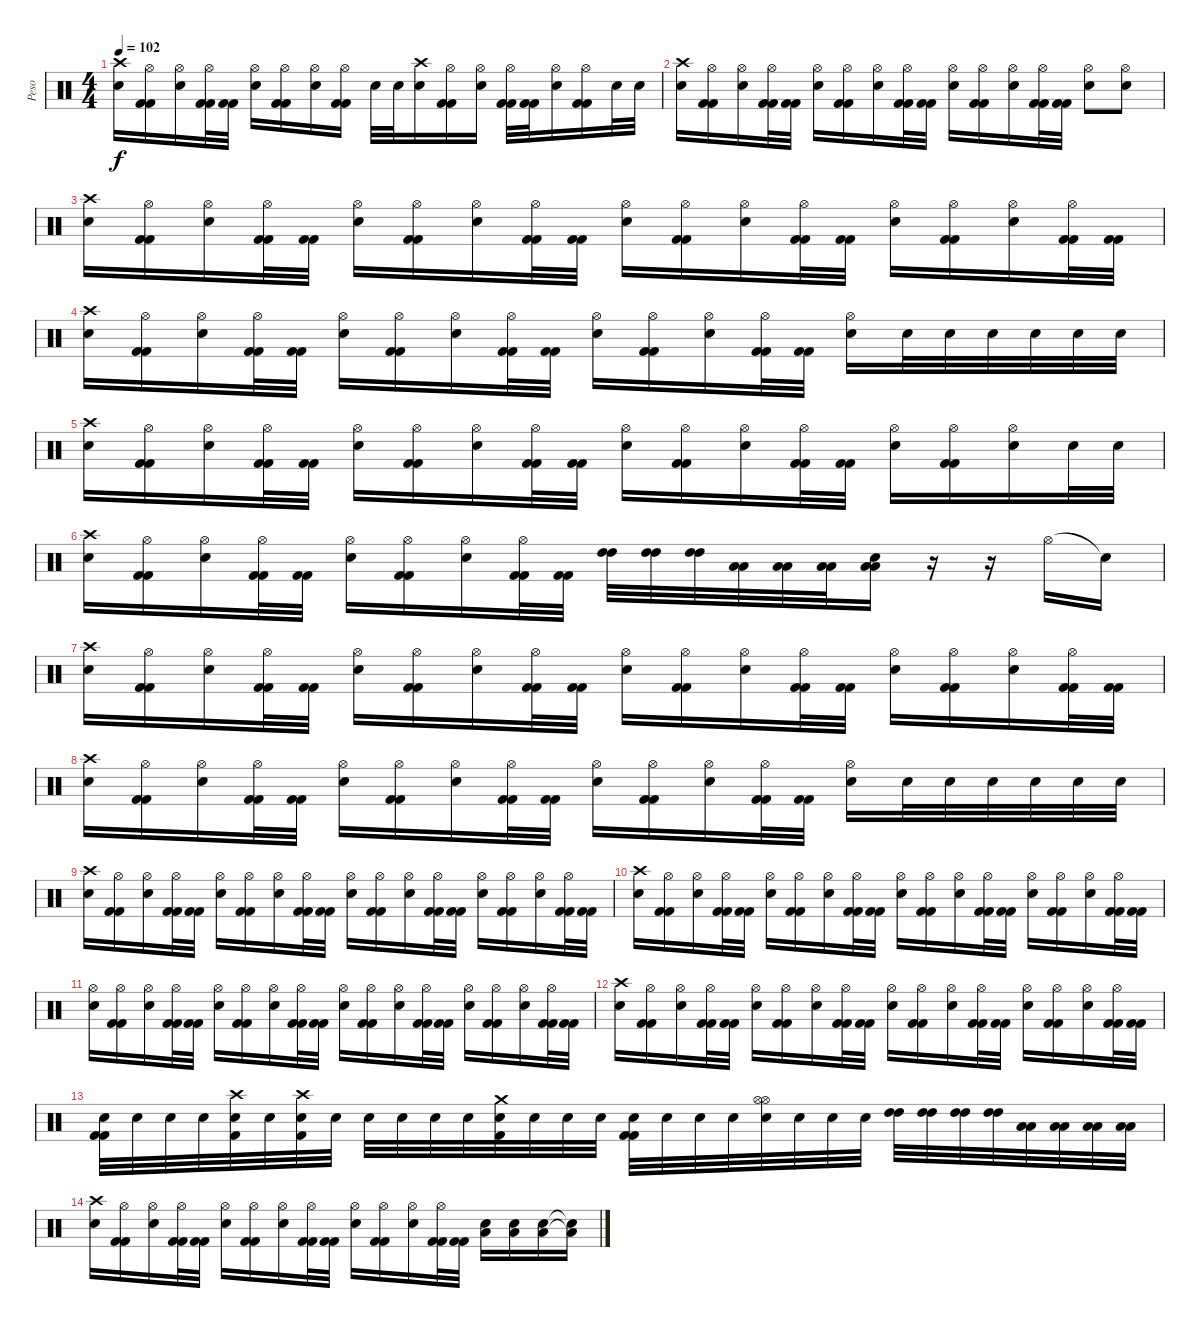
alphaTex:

\track ("Peso" "Peso") {instrument percussion}
\staff {score}
\articulation defaults
\ts (4 4)
\tempo 102
\clef neutral
\ks c
("Crash high (hit)" "Electric Snare (hit)").16{dy f} ("Hi-Hat (open)" "Kick (hit) 2" "Kick (hit) 2").16 ("Hi-Hat (open)" "Electric Snare (hit)").16 ("Hi-Hat (open)" "Kick (hit) 2" "Kick (hit) 2").32 ("Kick (hit) 2" "Kick (hit) 2").32 ("Hi-Hat (open)" "Electric Snare (hit)").16 ("Hi-Hat (open)" "Kick (hit) 2" "Kick (hit) 2").16 ("Hi-Hat (open)" "Electric Snare (hit)").16 ("Hi-Hat (open)" "Kick (hit) 2" "Kick (hit) 2").16 "Electric Snare (hit)".32 "Electric Snare (hit)".32 ("Crash high (hit)" "Electric Snare (hit)").16 ("Hi-Hat (open)" "Kick (hit) 2" "Kick (hit) 2").16 ("Hi-Hat (open)" "Electric Snare (hit)").16 ("Hi-Hat (open)" "Kick (hit) 2" "Kick (hit) 2").32 ("Kick (hit) 2" "Kick (hit) 2").32 ("Hi-Hat (open)" "Electric Snare (hit)").16 ("Hi-Hat (open)" "Kick (hit) 2" "Kick (hit) 2").16 "Electric Snare (hit)".32 "Electric Snare (hit)".32 |
("Crash high (hit)" "Electric Snare (hit)").16 ("Hi-Hat (open)" "Kick (hit) 2" "Kick (hit) 2").16 ("Hi-Hat (open)" "Electric Snare (hit)").16 ("Hi-Hat (open)" "Kick (hit) 2" "Kick (hit) 2").32 ("Kick (hit) 2" "Kick (hit) 2").32 ("Hi-Hat (open)" "Electric Snare (hit)").16 ("Hi-Hat (open)" "Kick (hit) 2" "Kick (hit) 2").16 ("Hi-Hat (open)" "Electric Snare (hit)").16 ("Hi-Hat (open)" "Kick (hit) 2" "Kick (hit) 2").32 ("Kick (hit) 2" "Kick (hit) 2").32 ("Hi-Hat (open)" "Electric Snare (hit)").16 ("Hi-Hat (open)" "Kick (hit) 2" "Kick (hit) 2").16 ("Hi-Hat (open)" "Electric Snare (hit)").16 ("Hi-Hat (open)" "Kick (hit) 2" "Kick (hit) 2").32 ("Kick (hit) 2" "Kick (hit) 2").32 ("Hi-Hat (open)" "Electric Snare (hit)").8 ("Hi-Hat (open)" "Electric Snare (hit)").8 |
("Crash high (hit)" "Electric Snare (hit)").16 ("Hi-Hat (open)" "Kick (hit) 2" "Kick (hit) 2").16 ("Hi-Hat (open)" "Electric Snare (hit)").16 ("Hi-Hat (open)" "Kick (hit) 2" "Kick (hit) 2").32 ("Kick (hit) 2" "Kick (hit) 2").32 ("Hi-Hat (open)" "Electric Snare (hit)").16 ("Hi-Hat (open)" "Kick (hit) 2" "Kick (hit) 2").16 ("Hi-Hat (open)" "Electric Snare (hit)").16 ("Hi-Hat (open)" "Kick (hit) 2" "Kick (hit) 2").32 ("Kick (hit) 2" "Kick (hit) 2").32 ("Hi-Hat (open)" "Electric Snare (hit)").16 ("Hi-Hat (open)" "Kick (hit) 2" "Kick (hit) 2").16 ("Hi-Hat (open)" "Electric Snare (hit)").16 ("Hi-Hat (open)" "Kick (hit) 2" "Kick (hit) 2").32 ("Kick (hit) 2" "Kick (hit) 2").32 ("Hi-Hat (open)" "Electric Snare (hit)").16 ("Hi-Hat (open)" "Kick (hit) 2" "Kick (hit) 2").16 ("Hi-Hat (open)" "Electric Snare (hit)").16 ("Hi-Hat (open)" "Kick (hit) 2" "Kick (hit) 2").32 ("Kick (hit) 2" "Kick (hit) 2").32 |
("Crash high (hit)" "Electric Snare (hit)").16 ("Hi-Hat (open)" "Kick (hit) 2" "Kick (hit) 2").16 ("Hi-Hat (open)" "Electric Snare (hit)").16 ("Hi-Hat (open)" "Kick (hit) 2" "Kick (hit) 2").32 ("Kick (hit) 2" "Kick (hit) 2").32 ("Hi-Hat (open)" "Electric Snare (hit)").16 ("Hi-Hat (open)" "Kick (hit) 2" "Kick (hit) 2").16 ("Hi-Hat (open)" "Electric Snare (hit)").16 ("Hi-Hat (open)" "Kick (hit) 2" "Kick (hit) 2").32 ("Kick (hit) 2" "Kick (hit) 2").32 ("Hi-Hat (open)" "Electric Snare (hit)").16 ("Hi-Hat (open)" "Kick (hit) 2" "Kick (hit) 2").16 ("Hi-Hat (open)" "Electric Snare (hit)").16 ("Hi-Hat (open)" "Kick (hit) 2" "Kick (hit) 2").32 ("Kick (hit) 2" "Kick (hit) 2").32 ("Hi-Hat (open)" "Electric Snare (hit)").16 "Electric Snare (hit)".32 "Electric Snare (hit)".32 "Electric Snare (hit)".32 "Electric Snare (hit)".32 "Electric Snare (hit)".32 "Electric Snare (hit)".32 |
("Crash high (hit)" "Electric Snare (hit)").16 ("Hi-Hat (open)" "Kick (hit) 2" "Kick (hit) 2").16 ("Hi-Hat (open)" "Electric Snare (hit)").16 ("Hi-Hat (open)" "Kick (hit) 2" "Kick (hit) 2").32 ("Kick (hit) 2" "Kick (hit) 2").32 ("Hi-Hat (open)" "Electric Snare (hit)").16 ("Hi-Hat (open)" "Kick (hit) 2" "Kick (hit) 2").16 ("Hi-Hat (open)" "Electric Snare (hit)").16 ("Hi-Hat (open)" "Kick (hit) 2" "Kick (hit) 2").32 ("Kick (hit) 2" "Kick (hit) 2").32 ("Hi-Hat (open)" "Electric Snare (hit)").16 ("Hi-Hat (open)" "Kick (hit) 2" "Kick (hit) 2").16 ("Hi-Hat (open)" "Electric Snare (hit)").16 ("Hi-Hat (open)" "Kick (hit) 2" "Kick (hit) 2").32 ("Kick (hit) 2" "Kick (hit) 2").32 ("Hi-Hat (open)" "Electric Snare (hit)").16 ("Hi-Hat (open)" "Kick (hit) 2" "Kick (hit) 2").16 ("Hi-Hat (open)" "Electric Snare (hit)").16 "Electric Snare (hit)".32 "Electric Snare (hit)".32 |
("Crash high (hit)" "Electric Snare (hit)").16 ("Hi-Hat (open)" "Kick (hit) 2" "Kick (hit) 2").16 ("Hi-Hat (open)" "Electric Snare (hit)").16 ("Hi-Hat (open)" "Kick (hit) 2" "Kick (hit) 2").32 ("Kick (hit) 2" "Kick (hit) 2").32 ("Hi-Hat (open)" "Electric Snare (hit)").16 ("Hi-Hat (open)" "Kick (hit) 2" "Kick (hit) 2").16 ("Hi-Hat (open)" "Electric Snare (hit)").16 ("Hi-Hat (open)" "Kick (hit) 2" "Kick (hit) 2").32 ("Kick (hit) 2" "Kick (hit) 2").32 ("High Tom (hit)" "High Tom (hit)").32{volume 16} ("High Tom (hit)" "High Tom (hit)").32 ("High Tom (hit)" "High Tom (hit)").32 ("Low Floor Tom (hit)" "Low Floor Tom (hit)").32 ("Low Floor Tom (hit)" "Low Floor Tom (hit)").32 ("Low Floor Tom (hit)" "Low Floor Tom (hit)").32 ("Low Floor Tom (hit)" "Low Floor Tom (hit)" "Electric Snare (hit)").16{volume 15} r.16 r.16 "Hi-Hat (open)".16 "Snare (hit)"{t}.16 |
("Crash high (hit)" "Electric Snare (hit)").16 ("Hi-Hat (open)" "Kick (hit) 2" "Kick (hit) 2").16 ("Hi-Hat (open)" "Electric Snare (hit)").16 ("Hi-Hat (open)" "Kick (hit) 2" "Kick (hit) 2").32 ("Kick (hit) 2" "Kick (hit) 2").32 ("Hi-Hat (open)" "Electric Snare (hit)").16 ("Hi-Hat (open)" "Kick (hit) 2" "Kick (hit) 2").16 ("Hi-Hat (open)" "Electric Snare (hit)").16 ("Hi-Hat (open)" "Kick (hit) 2" "Kick (hit) 2").32 ("Kick (hit) 2" "Kick (hit) 2").32 ("Hi-Hat (open)" "Electric Snare (hit)").16 ("Hi-Hat (open)" "Kick (hit) 2" "Kick (hit) 2").16 ("Hi-Hat (open)" "Electric Snare (hit)").16 ("Hi-Hat (open)" "Kick (hit) 2" "Kick (hit) 2").32 ("Kick (hit) 2" "Kick (hit) 2").32 ("Hi-Hat (open)" "Electric Snare (hit)").16 ("Hi-Hat (open)" "Kick (hit) 2" "Kick (hit) 2").16 ("Hi-Hat (open)" "Electric Snare (hit)").16 ("Hi-Hat (open)" "Kick (hit) 2" "Kick (hit) 2").32 ("Kick (hit) 2" "Kick (hit) 2").32 |
("Crash high (hit)" "Electric Snare (hit)").16 ("Hi-Hat (open)" "Kick (hit) 2" "Kick (hit) 2").16 ("Hi-Hat (open)" "Electric Snare (hit)").16 ("Hi-Hat (open)" "Kick (hit) 2" "Kick (hit) 2").32 ("Kick (hit) 2" "Kick (hit) 2").32 ("Hi-Hat (open)" "Electric Snare (hit)").16 ("Hi-Hat (open)" "Kick (hit) 2" "Kick (hit) 2").16 ("Hi-Hat (open)" "Electric Snare (hit)").16 ("Hi-Hat (open)" "Kick (hit) 2" "Kick (hit) 2").32 ("Kick (hit) 2" "Kick (hit) 2").32 ("Hi-Hat (open)" "Electric Snare (hit)").16 ("Hi-Hat (open)" "Kick (hit) 2" "Kick (hit) 2").16 ("Hi-Hat (open)" "Electric Snare (hit)").16 ("Hi-Hat (open)" "Kick (hit) 2" "Kick (hit) 2").32 ("Kick (hit) 2" "Kick (hit) 2").32 ("Hi-Hat (open)" "Electric Snare (hit)").16 "Electric Snare (hit)".32 "Electric Snare (hit)".32 "Electric Snare (hit)".32 "Electric Snare (hit)".32 "Electric Snare (hit)".32 "Electric Snare (hit)".32 |
("Crash high (hit)" "Electric Snare (hit)").16 ("Hi-Hat (open)" "Kick (hit) 2" "Kick (hit) 2").16 ("Hi-Hat (open)" "Electric Snare (hit)").16 ("Hi-Hat (open)" "Kick (hit) 2" "Kick (hit) 2").32 ("Kick (hit) 2" "Kick (hit) 2").32 ("Hi-Hat (open)" "Electric Snare (hit)").16 ("Hi-Hat (open)" "Kick (hit) 2" "Kick (hit) 2").16 ("Hi-Hat (open)" "Electric Snare (hit)").16 ("Hi-Hat (open)" "Kick (hit) 2" "Kick (hit) 2").32 ("Kick (hit) 2" "Kick (hit) 2").32 ("Hi-Hat (open)" "Electric Snare (hit)").16 ("Hi-Hat (open)" "Kick (hit) 2" "Kick (hit) 2").16 ("Hi-Hat (open)" "Electric Snare (hit)").16 ("Hi-Hat (open)" "Kick (hit) 2" "Kick (hit) 2").32 ("Kick (hit) 2" "Kick (hit) 2").32 ("Hi-Hat (open)" "Electric Snare (hit)").16 ("Hi-Hat (open)" "Kick (hit) 2" "Kick (hit) 2").16 ("Hi-Hat (open)" "Electric Snare (hit)").16 ("Hi-Hat (open)" "Kick (hit) 2" "Kick (hit) 2").32 ("Kick (hit) 2" "Kick (hit) 2").32 |
("Crash high (hit)" "Electric Snare (hit)").16 ("Hi-Hat (open)" "Kick (hit) 2" "Kick (hit) 2").16 ("Hi-Hat (open)" "Electric Snare (hit)").16 ("Hi-Hat (open)" "Kick (hit) 2" "Kick (hit) 2").32 ("Kick (hit) 2" "Kick (hit) 2").32 ("Hi-Hat (open)" "Electric Snare (hit)").16 ("Hi-Hat (open)" "Kick (hit) 2" "Kick (hit) 2").16 ("Hi-Hat (open)" "Electric Snare (hit)").16 ("Hi-Hat (open)" "Kick (hit) 2" "Kick (hit) 2").32 ("Kick (hit) 2" "Kick (hit) 2").32 ("Hi-Hat (open)" "Electric Snare (hit)").16 ("Hi-Hat (open)" "Kick (hit) 2" "Kick (hit) 2").16 ("Hi-Hat (open)" "Electric Snare (hit)").16 ("Hi-Hat (open)" "Kick (hit) 2" "Kick (hit) 2").32 ("Kick (hit) 2" "Kick (hit) 2").32 ("Hi-Hat (open)" "Electric Snare (hit)").16 ("Hi-Hat (open)" "Kick (hit) 2" "Kick (hit) 2").16 ("Hi-Hat (open)" "Electric Snare (hit)").16 ("Hi-Hat (open)" "Kick (hit) 2" "Kick (hit) 2").32 ("Kick (hit) 2" "Kick (hit) 2").32 |
("Hi-Hat (open)" "Electric Snare (hit)").16 ("Hi-Hat (open)" "Kick (hit) 2" "Kick (hit) 2").16 ("Hi-Hat (open)" "Electric Snare (hit)").16 ("Hi-Hat (open)" "Kick (hit) 2" "Kick (hit) 2").32 ("Kick (hit) 2" "Kick (hit) 2").32 ("Hi-Hat (open)" "Electric Snare (hit)").16 ("Hi-Hat (open)" "Kick (hit) 2" "Kick (hit) 2").16 ("Hi-Hat (open)" "Electric Snare (hit)").16 ("Hi-Hat (open)" "Kick (hit) 2" "Kick (hit) 2").32 ("Kick (hit) 2" "Kick (hit) 2").32 ("Hi-Hat (open)" "Electric Snare (hit)").16 ("Hi-Hat (open)" "Kick (hit) 2" "Kick (hit) 2").16 ("Hi-Hat (open)" "Electric Snare (hit)").16 ("Hi-Hat (open)" "Kick (hit) 2" "Kick (hit) 2").32 ("Kick (hit) 2" "Kick (hit) 2").32 ("Hi-Hat (open)" "Electric Snare (hit)").16 ("Hi-Hat (open)" "Kick (hit) 2" "Kick (hit) 2").16 ("Hi-Hat (open)" "Electric Snare (hit)").16 ("Hi-Hat (open)" "Kick (hit) 2" "Kick (hit) 2").32 ("Kick (hit) 2" "Kick (hit) 2").32 |
("Crash high (hit)" "Electric Snare (hit)").16 ("Hi-Hat (open)" "Kick (hit) 2" "Kick (hit) 2").16 ("Hi-Hat (open)" "Electric Snare (hit)").16 ("Hi-Hat (open)" "Kick (hit) 2" "Kick (hit) 2").32 ("Kick (hit) 2" "Kick (hit) 2").32 ("Hi-Hat (open)" "Electric Snare (hit)").16 ("Hi-Hat (open)" "Kick (hit) 2" "Kick (hit) 2").16 ("Hi-Hat (open)" "Electric Snare (hit)").16 ("Hi-Hat (open)" "Kick (hit) 2" "Kick (hit) 2").32 ("Kick (hit) 2" "Kick (hit) 2").32 ("Hi-Hat (open)" "Electric Snare (hit)").16 ("Hi-Hat (open)" "Kick (hit) 2" "Kick (hit) 2").16 ("Hi-Hat (open)" "Electric Snare (hit)").16 ("Hi-Hat (open)" "Kick (hit) 2" "Kick (hit) 2").32 ("Kick (hit) 2" "Kick (hit) 2").32 ("Hi-Hat (open)" "Electric Snare (hit)").16 ("Hi-Hat (open)" "Kick (hit) 2" "Kick (hit) 2").16 ("Hi-Hat (open)" "Electric Snare (hit)").16 ("Hi-Hat (open)" "Kick (hit) 2" "Kick (hit) 2").32 ("Kick (hit) 2" "Kick (hit) 2").32 |
("Electric Snare (hit)" "Kick (hit) 2" "Kick (hit) 2").32 "Electric Snare (hit)".32 "Electric Snare (hit)".32 "Electric Snare (hit)".32 ("Crash high (hit)" "Electric Snare (hit)" "Kick (hit) 2").32 "Electric Snare (hit)".32 ("Crash high (hit)" "Electric Snare (hit)" "Kick (hit) 2").32 "Electric Snare (hit)".32 "Electric Snare (hit)".32 "Electric Snare (hit)".32 "Electric Snare (hit)".32 "Electric Snare (hit)".32 ("Crash medium (hit)" "Electric Snare (hit)" "Kick (hit) 2").32 "Electric Snare (hit)".32 "Electric Snare (hit)".32 "Electric Snare (hit)".32 ("Electric Snare (hit)" "Kick (hit) 2" "Kick (hit) 2").32 "Electric Snare (hit)".32 "Electric Snare (hit)".32 "Electric Snare (hit)".32 ("Hi-Hat (open)" "Hi-Hat (open)" "Electric Snare (hit)").32 "Electric Snare (hit)".32 "Electric Snare (hit)".32 "Electric Snare (hit)".32 ("High Tom (hit)" "High Tom (hit)").32{volume 16} ("High Tom (hit)" "High Tom (hit)").32 ("High Tom (hit)" "High Tom (hit)").32 ("High Tom (hit)" "High Tom (hit)").32 ("Low Floor Tom (hit)" "Low Floor Tom (hit)").32 ("Low Floor Tom (hit)" "Low Floor Tom (hit)").32 ("Low Floor Tom (hit)" "Low Floor Tom (hit)").32 ("Low Floor Tom (hit)" "Low Floor Tom (hit)").32 |
("Crash high (hit)" "Electric Snare (hit)").16{volume 15} ("Hi-Hat (open)" "Kick (hit) 2" "Kick (hit) 2").16 ("Hi-Hat (open)" "Electric Snare (hit)").16 ("Hi-Hat (open)" "Kick (hit) 2" "Kick (hit) 2").32 ("Kick (hit) 2" "Kick (hit) 2").32 ("Hi-Hat (open)" "Electric Snare (hit)").16 ("Hi-Hat (open)" "Kick (hit) 2" "Kick (hit) 2").16 ("Hi-Hat (open)" "Electric Snare (hit)").16 ("Hi-Hat (open)" "Kick (hit) 2" "Kick (hit) 2").32 ("Kick (hit) 2" "Kick (hit) 2").32 ("Hi-Hat (open)" "Electric Snare (hit)").16 ("Hi-Hat (open)" "Kick (hit) 2" "Kick (hit) 2").16 ("Hi-Hat (open)" "Electric Snare (hit)").16 ("Hi-Hat (open)" "Kick (hit) 2" "Kick (hit) 2").32 ("Kick (hit) 2" "Kick (hit) 2").32{volume 16} ("Low Floor Tom (hit)" "Electric Snare (hit)").16 ("Low Floor Tom (hit)" "Electric Snare (hit)").16 ("Low Floor Tom (hit)" "Electric Snare (hit)").16 ("Low Floor Tom (hit)"{t} "Electric Snare (hit)"{t}).16
